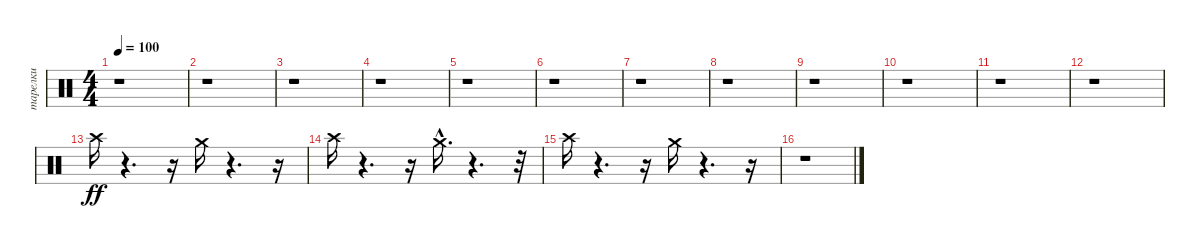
\track ("тарелки" "тарелки") {instrument percussion}
\staff {score}
\articulation defaults
\ts (4 4)
\tempo 100
\clef neutral
\ks c
r.1{dy ff} |
r.1 |
r.1 |
r.1 |
r.1 |
r.1 |
r.1 |
r.1 |
r.1 |
r.1 |
r.1 |
r.1 |
"Crash high (hit)".16 r.4{d} r.16 "Crash medium (hit)".16 r.4{d} r.16 |
"Crash high (hit)".16 r.4{d} r.16 "Crash medium (hit)"{hac}.16{d} r.4{d} r.32 |
"Crash high (hit)".16 r.4{d} r.16 "Crash medium (hit)".16 r.4{d} r.16 |
r.1
